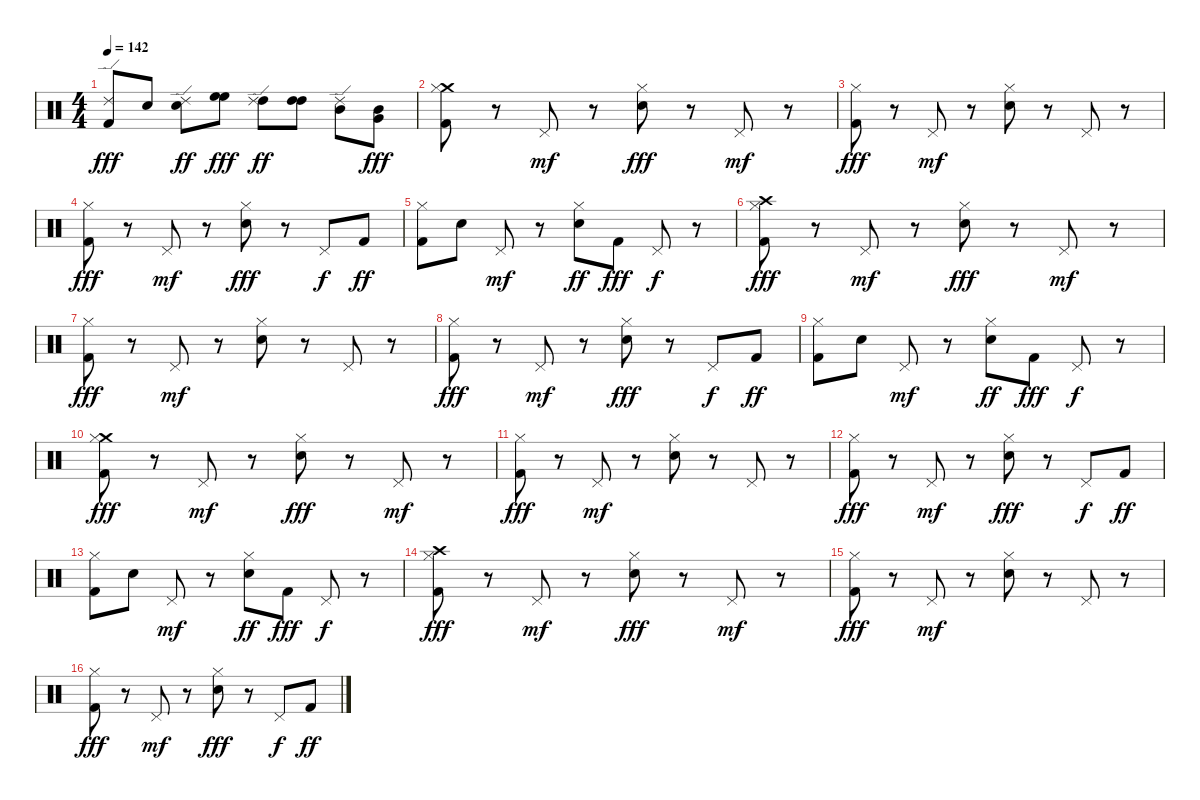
\track "" {instrument percussion}
\staff {score}
\articulation defaults
\ts (4 4)
\tempo 142
\clef neutral
\ks c
("Ride (edge) 2" "Kick (hit) 2").8{dy fff} "Electric Snare (hit)".8 ("Electric Snare (hit)" "Ride (edge) 2").8{dy ff} ("High Floor Tom (hit)" "High Floor Tom (hit)").8{dy fff} ("High Tom (hit)" "Ride (edge) 2").8{dy ff} ("High Tom (hit)" "High Tom (hit)").8 ("Mid Tom (hit)" "Ride (edge) 2").8 ("Mid Tom (hit)" "Very Low Tom (hit)").8{dy fff} |
("Crash medium (hit)" "Kick (hit) 2" "Hi-Hat (closed)").8 r.8 "Pedal Hi-Hat (hit)".8{dy mf} r.8 ("Electric Snare (hit)" "Hi-Hat (closed)").8{dy fff} r.8 "Pedal Hi-Hat (hit)".8{dy mf} r.8 |
("Kick (hit) 2" "Hi-Hat (closed)").8{dy fff} r.8 "Pedal Hi-Hat (hit)".8{dy mf} r.8 ("Electric Snare (hit)" "Hi-Hat (closed)").8 r.8 "Pedal Hi-Hat (hit)".8 r.8 |
("Kick (hit) 2" "Hi-Hat (closed)").8{dy fff} r.8 "Pedal Hi-Hat (hit)".8{dy mf} r.8 ("Electric Snare (hit)" "Hi-Hat (closed)").8{dy fff} r.8 "Pedal Hi-Hat (hit)".8{dy f} "Kick (hit) 2".8{dy ff} |
("Kick (hit) 2" "Hi-Hat (closed)").8 "Electric Snare (hit)".8 "Pedal Hi-Hat (hit)".8{dy mf} r.8 ("Electric Snare (hit)" "Hi-Hat (closed)").8{dy ff} "Kick (hit) 2".8{dy fff} "Pedal Hi-Hat (hit)".8{dy f} r.8 |
("Crash high (hit)" "Kick (hit) 2" "Hi-Hat (closed)").8{dy fff} r.8 "Pedal Hi-Hat (hit)".8{dy mf} r.8 ("Electric Snare (hit)" "Hi-Hat (closed)").8{dy fff} r.8 "Pedal Hi-Hat (hit)".8{dy mf} r.8 |
("Kick (hit) 2" "Hi-Hat (closed)").8{dy fff} r.8 "Pedal Hi-Hat (hit)".8{dy mf} r.8 ("Electric Snare (hit)" "Hi-Hat (closed)").8 r.8 "Pedal Hi-Hat (hit)".8 r.8 |
("Kick (hit) 2" "Hi-Hat (closed)").8{dy fff} r.8 "Pedal Hi-Hat (hit)".8{dy mf} r.8 ("Electric Snare (hit)" "Hi-Hat (closed)").8{dy fff} r.8 "Pedal Hi-Hat (hit)".8{dy f} "Kick (hit) 2".8{dy ff} |
("Kick (hit) 2" "Hi-Hat (closed)").8 "Electric Snare (hit)".8 "Pedal Hi-Hat (hit)".8{dy mf} r.8 ("Electric Snare (hit)" "Hi-Hat (closed)").8{dy ff} "Kick (hit) 2".8{dy fff} "Pedal Hi-Hat (hit)".8{dy f} r.8 |
("Crash medium (hit)" "Kick (hit) 2" "Hi-Hat (closed)").8{dy fff} r.8 "Pedal Hi-Hat (hit)".8{dy mf} r.8 ("Electric Snare (hit)" "Hi-Hat (closed)").8{dy fff} r.8 "Pedal Hi-Hat (hit)".8{dy mf} r.8 |
("Kick (hit) 2" "Hi-Hat (closed)").8{dy fff} r.8 "Pedal Hi-Hat (hit)".8{dy mf} r.8 ("Electric Snare (hit)" "Hi-Hat (closed)").8 r.8 "Pedal Hi-Hat (hit)".8 r.8 |
("Kick (hit) 2" "Hi-Hat (closed)").8{dy fff} r.8 "Pedal Hi-Hat (hit)".8{dy mf} r.8 ("Electric Snare (hit)" "Hi-Hat (closed)").8{dy fff} r.8 "Pedal Hi-Hat (hit)".8{dy f} "Kick (hit) 2".8{dy ff} |
("Kick (hit) 2" "Hi-Hat (closed)").8 "Electric Snare (hit)".8 "Pedal Hi-Hat (hit)".8{dy mf} r.8 ("Electric Snare (hit)" "Hi-Hat (closed)").8{dy ff} "Kick (hit) 2".8{dy fff} "Pedal Hi-Hat (hit)".8{dy f} r.8 |
("Crash high (hit)" "Kick (hit) 2" "Hi-Hat (closed)").8{dy fff} r.8 "Pedal Hi-Hat (hit)".8{dy mf} r.8 ("Electric Snare (hit)" "Hi-Hat (closed)").8{dy fff} r.8 "Pedal Hi-Hat (hit)".8{dy mf} r.8 |
("Kick (hit) 2" "Hi-Hat (closed)").8{dy fff} r.8 "Pedal Hi-Hat (hit)".8{dy mf} r.8 ("Electric Snare (hit)" "Hi-Hat (closed)").8 r.8 "Pedal Hi-Hat (hit)".8 r.8 |
("Kick (hit) 2" "Hi-Hat (closed)").8{dy fff} r.8 "Pedal Hi-Hat (hit)".8{dy mf} r.8 ("Electric Snare (hit)" "Hi-Hat (closed)").8{dy fff} r.8 "Pedal Hi-Hat (hit)".8{dy f} "Kick (hit) 2".8{dy ff}
